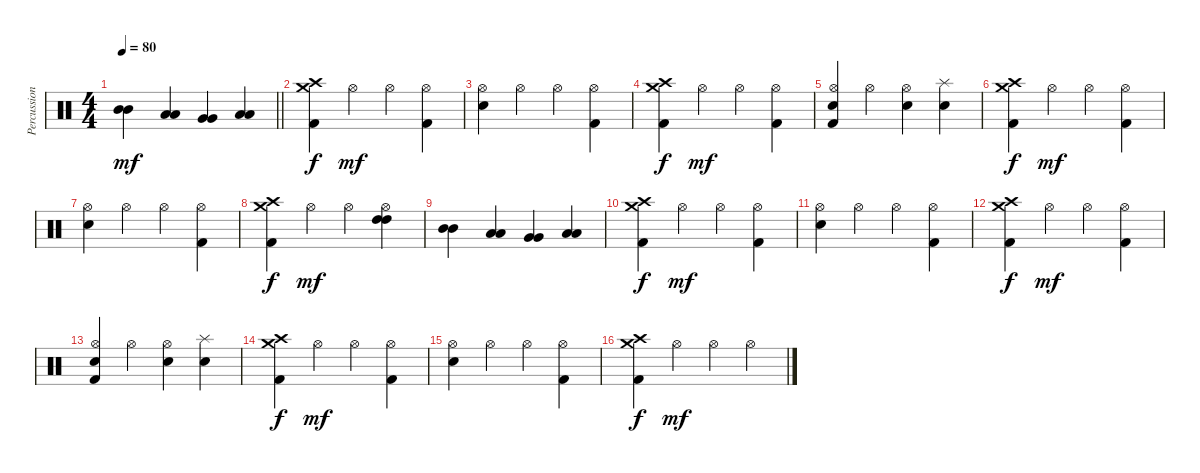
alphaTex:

\track ("Percussioni" "Percussion") {instrument percussion}
\staff {score}
\articulation defaults
\ts (4 4)
\tempo 80
\clef neutral
\barLineRight lightlight
\ks c
("Mid Tom (hit)" "Mid Tom (hit)").4{dy mf} ("Low Tom (hit)" "Low Tom (hit)").4 ("Very Low Tom (hit)" "Very Low Tom (hit)").4 ("Low Floor Tom (hit)" "Low Floor Tom (hit)").4 |
\section ("" "")
("Crash high (hit)" "Crash medium (hit)" "Kick (hit) 2").4{dy f} "Hi-Hat (open)".4{dy mf} "Hi-Hat (open)".4 ("Hi-Hat (open)" "Kick (hit) 2").4 |
("Hi-Hat (open)" "Snare (hit) 2").4 "Hi-Hat (open)".4 "Hi-Hat (open)".4 ("Hi-Hat (open)" "Kick (hit) 2").4 |
("Crash high (hit)" "Crash medium (hit)" "Kick (hit) 2").4{dy f} "Hi-Hat (open)".4{dy mf} "Hi-Hat (open)".4 ("Hi-Hat (open)" "Kick (hit) 2").4 |
("Hi-Hat (open)" "Snare (hit) 2" "Kick (hit) 2").4 "Hi-Hat (open)".4 ("Hi-Hat (open)" "Electric Snare (hit)").4 ("Splash (hit)" "Electric Snare (hit)").4 |
("Crash high (hit)" "Crash medium (hit)" "Kick (hit) 2").4{dy f} "Hi-Hat (open)".4{dy mf} "Hi-Hat (open)".4 ("Hi-Hat (open)" "Kick (hit) 2").4 |
("Hi-Hat (open)" "Snare (hit) 2").4 "Hi-Hat (open)".4 "Hi-Hat (open)".4 ("Hi-Hat (open)" "Kick (hit) 2").4 |
("Crash high (hit)" "Crash medium (hit)" "Kick (hit) 2").4{dy f} "Hi-Hat (open)".4{dy mf} "Hi-Hat (open)".4 ("Hi-Hat (open)" "High Tom (hit)" "High Tom (hit)").4 |
("Mid Tom (hit)" "Mid Tom (hit)").4 ("Low Tom (hit)" "Low Tom (hit)").4 ("Very Low Tom (hit)" "Very Low Tom (hit)").4 ("Low Floor Tom (hit)" "Low Floor Tom (hit)").4 |
("Crash high (hit)" "Crash medium (hit)" "Kick (hit) 2").4{dy f} "Hi-Hat (open)".4{dy mf} "Hi-Hat (open)".4 ("Hi-Hat (open)" "Kick (hit) 2").4 |
("Hi-Hat (open)" "Snare (hit) 2").4 "Hi-Hat (open)".4 "Hi-Hat (open)".4 ("Hi-Hat (open)" "Kick (hit) 2").4 |
("Crash high (hit)" "Crash medium (hit)" "Kick (hit) 2").4{dy f} "Hi-Hat (open)".4{dy mf} "Hi-Hat (open)".4 ("Hi-Hat (open)" "Kick (hit) 2").4 |
("Hi-Hat (open)" "Snare (hit) 2" "Kick (hit) 2").4 "Hi-Hat (open)".4 ("Hi-Hat (open)" "Electric Snare (hit)").4 ("Splash (hit)" "Electric Snare (hit)").4 |
("Crash high (hit)" "Crash medium (hit)" "Kick (hit) 2").4{dy f} "Hi-Hat (open)".4{dy mf} "Hi-Hat (open)".4 ("Hi-Hat (open)" "Kick (hit) 2").4 |
("Hi-Hat (open)" "Snare (hit) 2").4 "Hi-Hat (open)".4 "Hi-Hat (open)".4 ("Hi-Hat (open)" "Kick (hit) 2").4 |
("Crash high (hit)" "Crash medium (hit)" "Kick (hit) 2").4{dy f} "Hi-Hat (open)".4{dy mf} "Hi-Hat (open)".4 "Hi-Hat (open)".4
